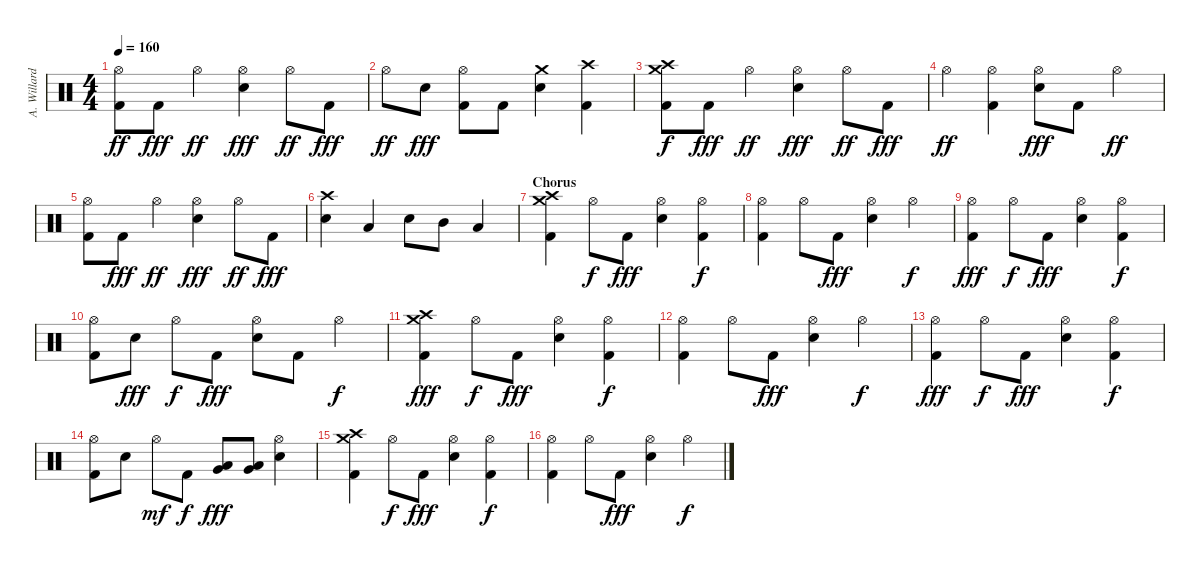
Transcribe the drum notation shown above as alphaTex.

\track ("A. Willard (Drums)" "A. Willard") {instrument percussion}
\staff {score}
\articulation defaults
\ts (4 4)
\tempo 160
\clef neutral
\ks c
("Hi-Hat (open)" "Kick (hit) 2").8{dy ff} "Kick (hit) 2".8{dy fff} "Hi-Hat (open)".4{dy ff} ("Hi-Hat (open)" "Electric Snare (hit)").4{dy fff} "Hi-Hat (open)".8{dy ff} "Kick (hit) 2".8{dy fff} |
"Hi-Hat (open)".8{dy ff} "Electric Snare (hit)".8{dy fff} ("Hi-Hat (open)" "Kick (hit) 2").8 "Kick (hit) 2".8 ("Crash medium (hit)" "Electric Snare (hit)").4 ("Crash high (hit)" "Kick (hit) 2").4 |
\section ("" "")
("Crash high (hit)" "Kick (hit) 2" "Crash medium (hit)").8{dy f} "Kick (hit) 2".8{dy fff} "Hi-Hat (open)".4{dy ff} ("Hi-Hat (open)" "Electric Snare (hit)").4{dy fff} "Hi-Hat (open)".8{dy ff} "Kick (hit) 2".8{dy fff} |
"Hi-Hat (open)".4{dy ff} ("Hi-Hat (open)" "Kick (hit) 2").4 ("Hi-Hat (open)" "Electric Snare (hit)").8{dy fff} "Kick (hit) 2".8 "Hi-Hat (open)".4{dy ff} |
("Hi-Hat (open)" "Kick (hit) 2").8 "Kick (hit) 2".8{dy fff} "Hi-Hat (open)".4{dy ff} ("Hi-Hat (open)" "Electric Snare (hit)").4{dy fff} "Hi-Hat (open)".8{dy ff} "Kick (hit) 2".8{dy fff} |
("Crash high (hit)" "Electric Snare (hit)").4{volume 15} "Low Tom (hit)".4 "Electric Snare (hit)".8 "Mid Tom (hit)".8 "Low Tom (hit)".4 |
\section ("" "Chorus")
("Crash high (hit)" "Kick (hit) 2" "Crash medium (hit)").4 "Hi-Hat (open)".8{dy f} "Kick (hit) 2".8{dy fff} ("Hi-Hat (open)" "Electric Snare (hit)").4 ("Hi-Hat (open)" "Kick (hit) 2").4{dy f} |
("Hi-Hat (open)" "Kick (hit) 2").4 "Hi-Hat (open)".8 "Kick (hit) 2".8{dy fff} ("Hi-Hat (open)" "Electric Snare (hit)").4 "Hi-Hat (open)".4{dy f} |
("Hi-Hat (open)" "Kick (hit) 2").4{dy fff} "Hi-Hat (open)".8{dy f} "Kick (hit) 2".8{dy fff} ("Hi-Hat (open)" "Electric Snare (hit)").4 ("Hi-Hat (open)" "Kick (hit) 2").4{dy f} |
("Hi-Hat (open)" "Kick (hit) 2").8 "Electric Snare (hit)".8{dy fff} "Hi-Hat (open)".8{dy f} "Kick (hit) 2".8{dy fff} ("Hi-Hat (open)" "Electric Snare (hit)").8 "Kick (hit) 2".8 "Hi-Hat (open)".4{dy f} |
("Crash high (hit)" "Kick (hit) 2" "Crash medium (hit)").4{dy fff} "Hi-Hat (open)".8{dy f} "Kick (hit) 2".8{dy fff} ("Hi-Hat (open)" "Electric Snare (hit)").4 ("Hi-Hat (open)" "Kick (hit) 2").4{dy f} |
("Hi-Hat (open)" "Kick (hit) 2").4 "Hi-Hat (open)".8 "Kick (hit) 2".8{dy fff} ("Hi-Hat (open)" "Electric Snare (hit)").4 "Hi-Hat (open)".4{dy f} |
("Hi-Hat (open)" "Kick (hit) 2").4{dy fff} "Hi-Hat (open)".8{dy f} "Kick (hit) 2".8{dy fff} ("Hi-Hat (open)" "Electric Snare (hit)").4 ("Hi-Hat (open)" "Kick (hit) 2").4{dy f} |
("Hi-Hat (open)" "Kick (hit) 2").8 "Electric Snare (hit)".8 "Hi-Hat (open)".8{dy mf} "Kick (hit) 2".8{dy f} ("Very Low Tom (hit)" "Low Floor Tom (hit)").8{dy fff} ("Very Low Tom (hit)" "Low Floor Tom (hit)").8 ("Hi-Hat (open)" "Electric Snare (hit)").4 |
("Crash high (hit)" "Kick (hit) 2" "Crash medium (hit)").4 "Hi-Hat (open)".8{dy f} "Kick (hit) 2".8{dy fff} ("Hi-Hat (open)" "Electric Snare (hit)").4 ("Hi-Hat (open)" "Kick (hit) 2").4{dy f} |
("Hi-Hat (open)" "Kick (hit) 2").4 "Hi-Hat (open)".8 "Kick (hit) 2".8{dy fff} ("Hi-Hat (open)" "Electric Snare (hit)").4 "Hi-Hat (open)".4{dy f}
